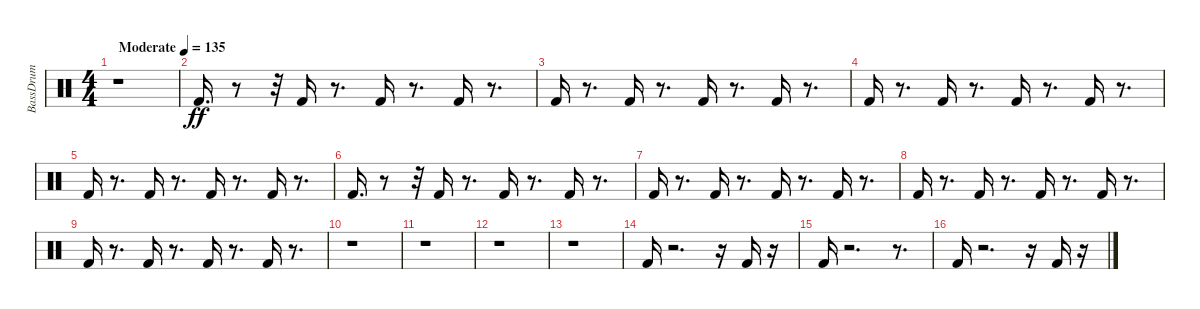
\track ("BassDrum" "BassDrum") {instrument percussion}
\staff {score}
\articulation defaults
\ts (4 4)
\tempo (135 "Moderate")
\clef neutral
\ks c
r.1{dy ff} |
"Kick (hit) 2".16{d} r.8 r.32 "Kick (hit) 2".16 r.8{d} "Kick (hit) 2".16 r.8{d} "Kick (hit) 2".16 r.8{d} |
"Kick (hit) 2".16 r.8{d} "Kick (hit) 2".16 r.8{d} "Kick (hit) 2".16 r.8{d} "Kick (hit) 2".16 r.8{d} |
"Kick (hit) 2".16 r.8{d} "Kick (hit) 2".16 r.8{d} "Kick (hit) 2".16 r.8{d} "Kick (hit) 2".16 r.8{d} |
"Kick (hit) 2".16 r.8{d} "Kick (hit) 2".16 r.8{d} "Kick (hit) 2".16 r.8{d} "Kick (hit) 2".16 r.8{d} |
"Kick (hit) 2".16{d} r.8 r.32 "Kick (hit) 2".16 r.8{d} "Kick (hit) 2".16 r.8{d} "Kick (hit) 2".16 r.8{d} |
"Kick (hit) 2".16 r.8{d} "Kick (hit) 2".16 r.8{d} "Kick (hit) 2".16 r.8{d} "Kick (hit) 2".16 r.8{d} |
"Kick (hit) 2".16 r.8{d} "Kick (hit) 2".16 r.8{d} "Kick (hit) 2".16 r.8{d} "Kick (hit) 2".16 r.8{d} |
"Kick (hit) 2".16 r.8{d} "Kick (hit) 2".16 r.8{d} "Kick (hit) 2".16 r.8{d} "Kick (hit) 2".16 r.8{d} |
r.1 |
r.1 |
r.1 |
r.1 |
"Kick (hit) 2".16 r.2{d} r.16 "Kick (hit) 2".16 r.16 |
"Kick (hit) 2".16 r.2{d} r.8{d} |
"Kick (hit) 2".16 r.2{d} r.16 "Kick (hit) 2".16 r.16
